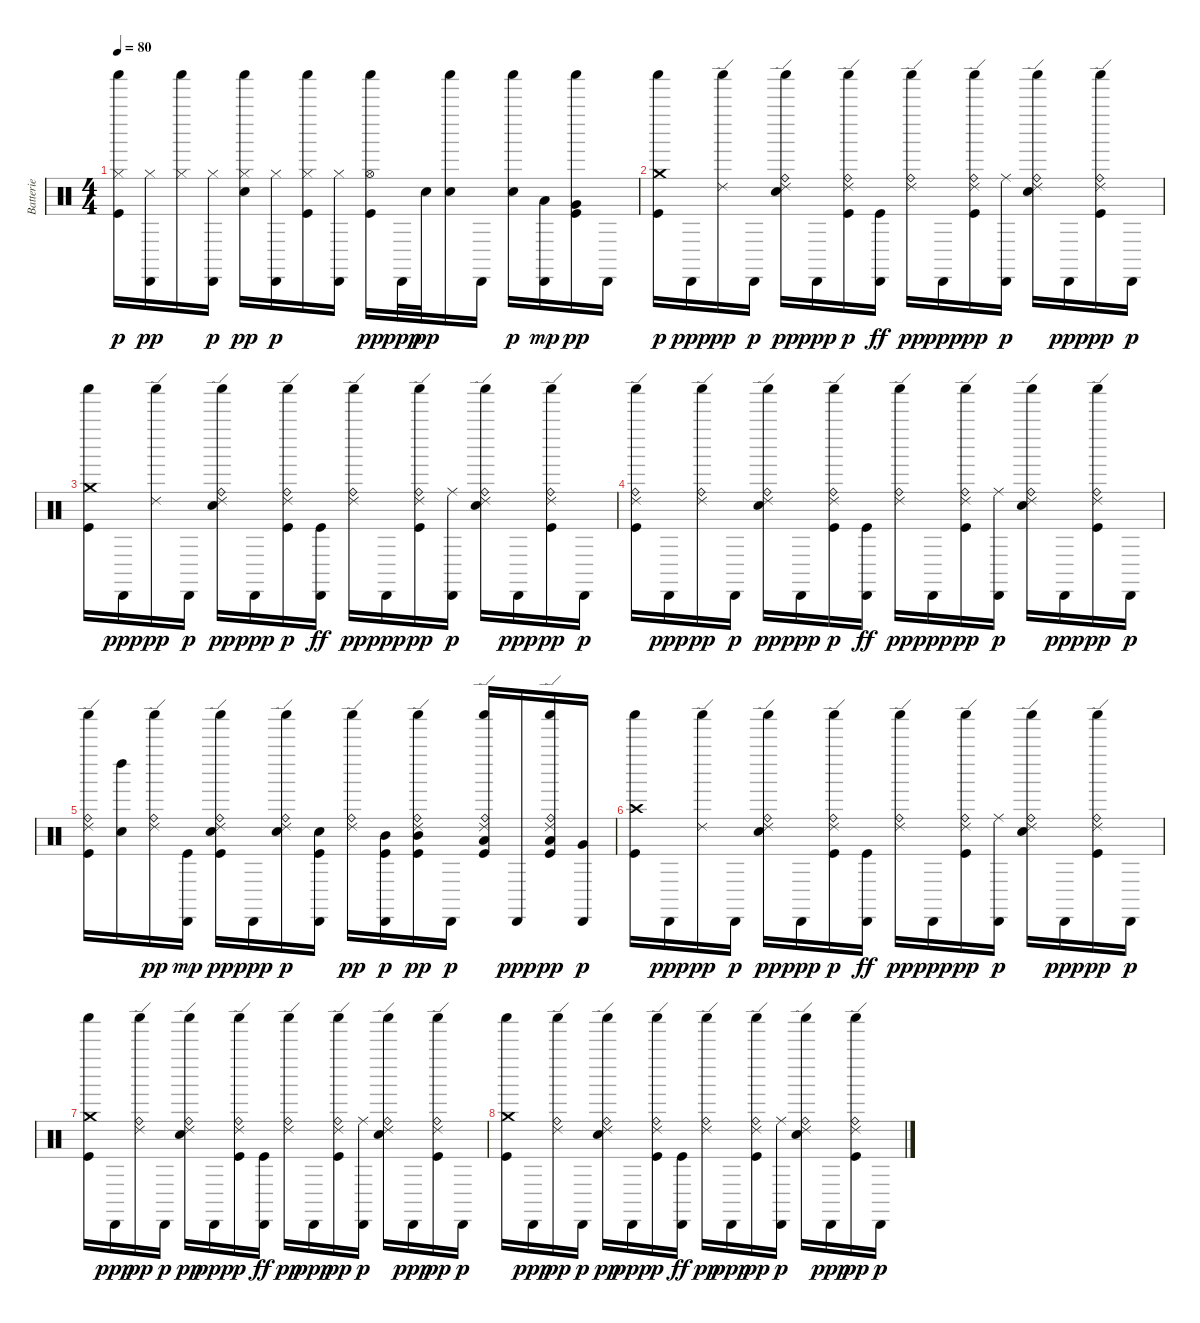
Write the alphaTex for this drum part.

\track ("Batterie" "Batterie") {instrument percussion}
\staff {score}
\articulation defaults
\ts (4 4)
\tempo 80
\clef neutral
\ks c
("Kick (hit)" "Hi-Hat (closed)" "Shaker (hit)").16{dy p} ("Cabasa (hit)" "Hi-Hat (closed)").16{dy pp} ("Hi-Hat (closed)" "Shaker (hit)").16 ("Cabasa (hit)" "Hi-Hat (closed)").16{dy p} ("Snare (hit) 2" "Hi-Hat (closed)" "Shaker (hit)").16{dy pp} ("Cabasa (hit)" "Hi-Hat (closed)").16{dy p} ("Kick (hit)" "Hi-Hat (closed)" "Shaker (hit)").16 ("Cabasa (hit)" "Hi-Hat (closed)").16 ("Kick (hit)" "Hi-Hat (open)" "Shaker (hit)").16{dy pp} "Cabasa (hit)".32{dy ppp} "Snare (hit) 2".32{dy pp} ("Snare (hit) 2" "Shaker (hit)").16 "Cabasa (hit)".16 ("Snare (hit) 2" "Shaker (hit)").16{dy p} ("Cabasa (hit)" "Low Tom (hit)").16{dy mp} ("Kick (hit)" "Very Low Tom (hit)" "Shaker (hit)").16{dy pp} "Cabasa (hit)".16 |
("Kick (hit)" "Crash medium (hit)" "Shaker (hit)").16{dy p} "Cabasa (hit)".16{dy ppp} ("Ride (edge) 2" "Shaker (hit)").16{dy pp} "Cabasa (hit)".16{dy p} ("Snare (hit) 2" "Ride (edge) 2" "Ride (bell)" "Shaker (hit)").16{dy pp} "Cabasa (hit)".16{dy ppp} ("Kick (hit)" "Ride (edge) 2" "Ride (bell)" "Shaker (hit)").16{dy p} ("Cabasa (hit)" "Kick (hit)").16{dy ff} ("Ride (edge) 2" "Ride (bell)" "Shaker (hit)").16{dy pp} "Cabasa (hit)".16{dy ppp} ("Kick (hit)" "Ride (edge) 2" "Ride (bell)" "Shaker (hit)").16{dy pp} ("Cabasa (hit)" "Ride (middle)").16{dy p} ("Snare (hit) 2" "Ride (edge) 2" "Ride (bell)" "Shaker (hit)").16 "Cabasa (hit)".16{dy ppp} ("Kick (hit)" "Ride (edge) 2" "Ride (bell)" "Shaker (hit)").16{dy pp} "Cabasa (hit)".16{dy p} |
("Kick (hit)" "Crash medium (hit)" "Shaker (hit)").16 "Cabasa (hit)".16{dy ppp} ("Ride (edge) 2" "Shaker (hit)").16{dy pp} "Cabasa (hit)".16{dy p} ("Snare (hit) 2" "Ride (edge) 2" "Ride (bell)" "Shaker (hit)").16{dy pp} "Cabasa (hit)".16{dy ppp} ("Kick (hit)" "Ride (edge) 2" "Ride (bell)" "Shaker (hit)").16{dy p} ("Cabasa (hit)" "Kick (hit)").16{dy ff} ("Ride (edge) 2" "Ride (bell)" "Shaker (hit)").16{dy pp} "Cabasa (hit)".16{dy ppp} ("Kick (hit)" "Ride (edge) 2" "Ride (bell)" "Shaker (hit)").16{dy pp} ("Cabasa (hit)" "Ride (middle)").16{dy p} ("Snare (hit) 2" "Ride (edge) 2" "Ride (bell)" "Shaker (hit)").16 "Cabasa (hit)".16{dy ppp} ("Kick (hit)" "Ride (edge) 2" "Ride (bell)" "Shaker (hit)").16{dy pp} "Cabasa (hit)".16{dy p} |
("Kick (hit)" "Ride (edge) 2" "Ride (bell)" "Shaker (hit)").16 "Cabasa (hit)".16{dy ppp} ("Ride (edge) 2" "Ride (bell)" "Shaker (hit)").16{dy pp} "Cabasa (hit)".16{dy p} ("Snare (hit) 2" "Ride (edge) 2" "Ride (bell)" "Shaker (hit)").16{dy pp} "Cabasa (hit)".16{dy ppp} ("Kick (hit)" "Ride (edge) 2" "Ride (bell)" "Shaker (hit)").16{dy p} ("Cabasa (hit)" "Kick (hit)").16{dy ff} ("Ride (edge) 2" "Ride (bell)" "Shaker (hit)").16{dy pp} "Cabasa (hit)".16{dy ppp} ("Kick (hit)" "Ride (edge) 2" "Ride (bell)" "Shaker (hit)").16{dy pp} ("Cabasa (hit)" "Ride (middle)").16{dy p} ("Snare (hit) 2" "Ride (edge) 2" "Ride (bell)" "Shaker (hit)").16 "Cabasa (hit)".16{dy ppp} ("Kick (hit)" "Ride (edge) 2" "Ride (bell)" "Shaker (hit)").16{dy pp} "Cabasa (hit)".16{dy p} |
("Kick (hit)" "Ride (edge) 2" "Ride (bell)" "Shaker (hit)").16 ("Snare (hit) 2" "Left Maraca (hit)").16 ("Ride (edge) 2" "Ride (bell)" "Shaker (hit)").16{dy pp} ("Cabasa (hit)" "Kick (hit)").16{dy mp} ("Kick (hit)" "Snare (hit) 2" "Ride (edge) 2" "Ride (bell)" "Shaker (hit)").16{dy pp} "Cabasa (hit)".16{dy ppp} ("Snare (hit) 2" "Ride (edge) 2" "Ride (bell)" "Shaker (hit)").16{dy p} ("Cabasa (hit)" "Kick (hit)" "Snare (hit) 2").16 ("Ride (edge) 2" "Ride (bell)" "Shaker (hit)").16{dy pp} ("Cabasa (hit)" "Kick (hit)" "Mid Tom (hit)").16{dy p} ("Kick (hit)" "Ride (edge) 2" "Ride (bell)" "Mid Tom (hit)" "Shaker (hit)").16{dy pp} "Cabasa (hit)".16{dy p} ("Kick (hit)" "Ride (edge) 2" "Ride (bell)" "Low Tom (hit)" "Shaker (hit)").16 "Cabasa (hit)".16{dy ppp} ("Kick (hit)" "Ride (edge) 2" "Ride (bell)" "Low Tom (hit)" "Shaker (hit)").16{dy pp} ("Cabasa (hit)" "Very Low Tom (hit)").16{dy p} |
("Kick (hit)" "Crash high (hit)" "Shaker (hit)").16 "Cabasa (hit)".16{dy ppp} ("Ride (edge) 2" "Shaker (hit)").16{dy pp} "Cabasa (hit)".16{dy p} ("Snare (hit) 2" "Ride (edge) 2" "Ride (bell)" "Shaker (hit)").16{dy pp} "Cabasa (hit)".16{dy ppp} ("Kick (hit)" "Ride (edge) 2" "Ride (bell)" "Shaker (hit)").16{dy p} ("Cabasa (hit)" "Kick (hit)").16{dy ff} ("Ride (edge) 2" "Ride (bell)" "Shaker (hit)").16{dy pp} "Cabasa (hit)".16{dy ppp} ("Kick (hit)" "Ride (edge) 2" "Ride (bell)" "Shaker (hit)").16{dy pp} ("Cabasa (hit)" "Ride (middle)").16{dy p} ("Snare (hit) 2" "Ride (edge) 2" "Ride (bell)" "Shaker (hit)").16 "Cabasa (hit)".16{dy ppp} ("Kick (hit)" "Ride (edge) 2" "Ride (bell)" "Shaker (hit)").16{dy pp} "Cabasa (hit)".16{dy p} |
("Kick (hit)" "Crash medium (hit)" "Shaker (hit)").16 "Cabasa (hit)".16{dy ppp} ("Ride (edge) 2" "Ride (bell)" "Shaker (hit)").16{dy pp} "Cabasa (hit)".16{dy p} ("Snare (hit) 2" "Ride (edge) 2" "Ride (bell)" "Shaker (hit)").16{dy pp} "Cabasa (hit)".16{dy ppp} ("Kick (hit)" "Ride (edge) 2" "Ride (bell)" "Shaker (hit)").16{dy p} ("Cabasa (hit)" "Kick (hit)").16{dy ff} ("Ride (edge) 2" "Ride (bell)" "Shaker (hit)").16{dy pp} "Cabasa (hit)".16{dy ppp} ("Kick (hit)" "Ride (edge) 2" "Ride (bell)" "Shaker (hit)").16{dy pp} ("Cabasa (hit)" "Ride (middle)").16{dy p} ("Snare (hit) 2" "Ride (edge) 2" "Ride (bell)" "Shaker (hit)").16 "Cabasa (hit)".16{dy ppp} ("Kick (hit)" "Ride (edge) 2" "Ride (bell)" "Shaker (hit)").16{dy pp} "Cabasa (hit)".16{dy p} |
("Kick (hit)" "Crash medium (hit)" "Shaker (hit)").16 "Cabasa (hit)".16{dy ppp} ("Ride (edge) 2" "Ride (bell)" "Shaker (hit)").16{dy pp} "Cabasa (hit)".16{dy p} ("Snare (hit) 2" "Ride (edge) 2" "Ride (bell)" "Shaker (hit)").16{dy pp} "Cabasa (hit)".16{dy ppp} ("Kick (hit)" "Ride (edge) 2" "Ride (bell)" "Shaker (hit)").16{dy p} ("Cabasa (hit)" "Kick (hit)").16{dy ff} ("Ride (edge) 2" "Ride (bell)" "Shaker (hit)").16{dy pp} "Cabasa (hit)".16{dy ppp} ("Kick (hit)" "Ride (edge) 2" "Ride (bell)" "Shaker (hit)").16{dy pp} ("Cabasa (hit)" "Ride (middle)").16{dy p} ("Snare (hit) 2" "Ride (edge) 2" "Ride (bell)" "Shaker (hit)").16 "Cabasa (hit)".16{dy ppp} ("Kick (hit)" "Ride (edge) 2" "Ride (bell)" "Shaker (hit)").16{dy pp} "Cabasa (hit)".16{dy p}
